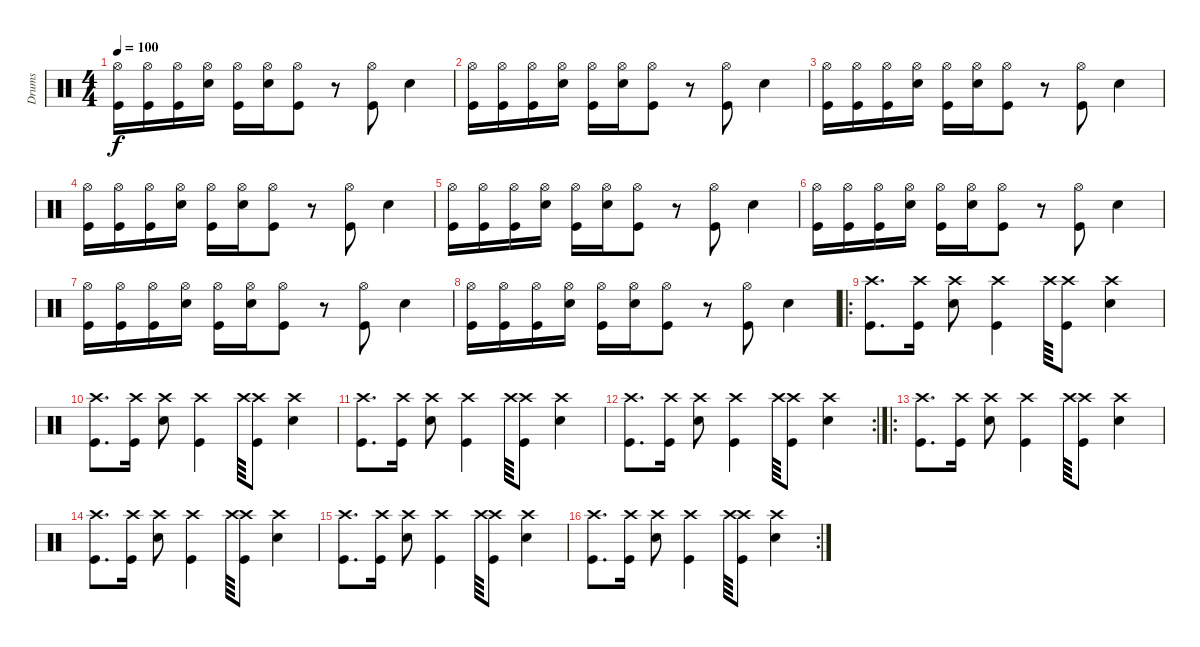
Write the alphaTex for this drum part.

\track ("Drums" "Drums") {instrument percussion}
\staff {score}
\articulation defaults
\ts (4 4)
\tempo 100
\clef neutral
\ks c
("Hi-Hat (open)" "Kick (hit)").16{dy f} ("Hi-Hat (open)" "Kick (hit)").16 ("Hi-Hat (open)" "Kick (hit)").16 ("Hi-Hat (open)" "Snare (hit) 2").16 ("Hi-Hat (open)" "Kick (hit)").16 ("Hi-Hat (open)" "Snare (hit) 2").16 ("Hi-Hat (open)" "Kick (hit)").8 r.8 ("Hi-Hat (open)" "Kick (hit)").8 "Snare (hit) 2".4 |
("Hi-Hat (open)" "Kick (hit)").16 ("Hi-Hat (open)" "Kick (hit)").16 ("Hi-Hat (open)" "Kick (hit)").16 ("Hi-Hat (open)" "Snare (hit) 2").16 ("Hi-Hat (open)" "Kick (hit)").16 ("Hi-Hat (open)" "Snare (hit) 2").16 ("Hi-Hat (open)" "Kick (hit)").8 r.8 ("Hi-Hat (open)" "Kick (hit)").8 "Snare (hit) 2".4 |
("Hi-Hat (open)" "Kick (hit)").16 ("Hi-Hat (open)" "Kick (hit)").16 ("Hi-Hat (open)" "Kick (hit)").16 ("Hi-Hat (open)" "Snare (hit) 2").16 ("Hi-Hat (open)" "Kick (hit)").16 ("Hi-Hat (open)" "Snare (hit) 2").16 ("Hi-Hat (open)" "Kick (hit)").8 r.8 ("Hi-Hat (open)" "Kick (hit)").8 "Snare (hit) 2".4 |
("Hi-Hat (open)" "Kick (hit)").16 ("Hi-Hat (open)" "Kick (hit)").16 ("Hi-Hat (open)" "Kick (hit)").16 ("Hi-Hat (open)" "Snare (hit) 2").16 ("Hi-Hat (open)" "Kick (hit)").16 ("Hi-Hat (open)" "Snare (hit) 2").16 ("Hi-Hat (open)" "Kick (hit)").8 r.8 ("Hi-Hat (open)" "Kick (hit)").8 "Snare (hit) 2".4 |
("Hi-Hat (open)" "Kick (hit)").16 ("Hi-Hat (open)" "Kick (hit)").16 ("Hi-Hat (open)" "Kick (hit)").16 ("Hi-Hat (open)" "Snare (hit) 2").16 ("Hi-Hat (open)" "Kick (hit)").16 ("Hi-Hat (open)" "Snare (hit) 2").16 ("Hi-Hat (open)" "Kick (hit)").8 r.8 ("Hi-Hat (open)" "Kick (hit)").8 "Snare (hit) 2".4 |
("Hi-Hat (open)" "Kick (hit)").16 ("Hi-Hat (open)" "Kick (hit)").16 ("Hi-Hat (open)" "Kick (hit)").16 ("Hi-Hat (open)" "Snare (hit) 2").16 ("Hi-Hat (open)" "Kick (hit)").16 ("Hi-Hat (open)" "Snare (hit) 2").16 ("Hi-Hat (open)" "Kick (hit)").8 r.8 ("Hi-Hat (open)" "Kick (hit)").8 "Snare (hit) 2".4 |
("Hi-Hat (open)" "Kick (hit)").16 ("Hi-Hat (open)" "Kick (hit)").16 ("Hi-Hat (open)" "Kick (hit)").16 ("Hi-Hat (open)" "Snare (hit) 2").16 ("Hi-Hat (open)" "Kick (hit)").16 ("Hi-Hat (open)" "Snare (hit) 2").16 ("Hi-Hat (open)" "Kick (hit)").8 r.8 ("Hi-Hat (open)" "Kick (hit)").8 "Snare (hit) 2".4 |
("Hi-Hat (open)" "Kick (hit)").16 ("Hi-Hat (open)" "Kick (hit)").16 ("Hi-Hat (open)" "Kick (hit)").16 ("Hi-Hat (open)" "Snare (hit) 2").16 ("Hi-Hat (open)" "Kick (hit)").16 ("Hi-Hat (open)" "Snare (hit) 2").16 ("Hi-Hat (open)" "Kick (hit)").8 r.8 ("Hi-Hat (open)" "Kick (hit)").8 "Snare (hit) 2".4 |
\ro
("Crash high (hit)" "Kick (hit)").8{d} ("Crash high (hit)" "Kick (hit)").16 ("Crash high (hit)" "Snare (hit) 2").8 ("Crash high (hit)" "Kick (hit)").4 "Crash high (hit)".64 ("Crash high (hit)" "Kick (hit)").8 ("Crash high (hit)" "Snare (hit) 2").4 |
("Crash high (hit)" "Kick (hit)").8{d} ("Crash high (hit)" "Kick (hit)").16 ("Crash high (hit)" "Snare (hit) 2").8 ("Crash high (hit)" "Kick (hit)").4 "Crash high (hit)".64 ("Crash high (hit)" "Kick (hit)").8 ("Crash high (hit)" "Snare (hit) 2").4 |
("Crash high (hit)" "Kick (hit)").8{d} ("Crash high (hit)" "Kick (hit)").16 ("Crash high (hit)" "Snare (hit) 2").8 ("Crash high (hit)" "Kick (hit)").4 "Crash high (hit)".64 ("Crash high (hit)" "Kick (hit)").8 ("Crash high (hit)" "Snare (hit) 2").4 |
\rc 2
("Crash high (hit)" "Kick (hit)").8{d} ("Crash high (hit)" "Kick (hit)").16 ("Crash high (hit)" "Snare (hit) 2").8 ("Crash high (hit)" "Kick (hit)").4 "Crash high (hit)".64 ("Crash high (hit)" "Kick (hit)").8 ("Crash high (hit)" "Snare (hit) 2").4 |
\ro
("Crash high (hit)" "Kick (hit)").8{d} ("Crash high (hit)" "Kick (hit)").16 ("Crash high (hit)" "Snare (hit) 2").8 ("Crash high (hit)" "Kick (hit)").4 "Crash high (hit)".64 ("Crash high (hit)" "Kick (hit)").8 ("Crash high (hit)" "Snare (hit) 2").4 |
("Crash high (hit)" "Kick (hit)").8{d} ("Crash high (hit)" "Kick (hit)").16 ("Crash high (hit)" "Snare (hit) 2").8 ("Crash high (hit)" "Kick (hit)").4 "Crash high (hit)".64 ("Crash high (hit)" "Kick (hit)").8 ("Crash high (hit)" "Snare (hit) 2").4 |
("Crash high (hit)" "Kick (hit)").8{d} ("Crash high (hit)" "Kick (hit)").16 ("Crash high (hit)" "Snare (hit) 2").8 ("Crash high (hit)" "Kick (hit)").4 "Crash high (hit)".64 ("Crash high (hit)" "Kick (hit)").8 ("Crash high (hit)" "Snare (hit) 2").4 |
\rc 2
("Crash high (hit)" "Kick (hit)").8{d} ("Crash high (hit)" "Kick (hit)").16 ("Crash high (hit)" "Snare (hit) 2").8 ("Crash high (hit)" "Kick (hit)").4 "Crash high (hit)".64 ("Crash high (hit)" "Kick (hit)").8 ("Crash high (hit)" "Snare (hit) 2").4
